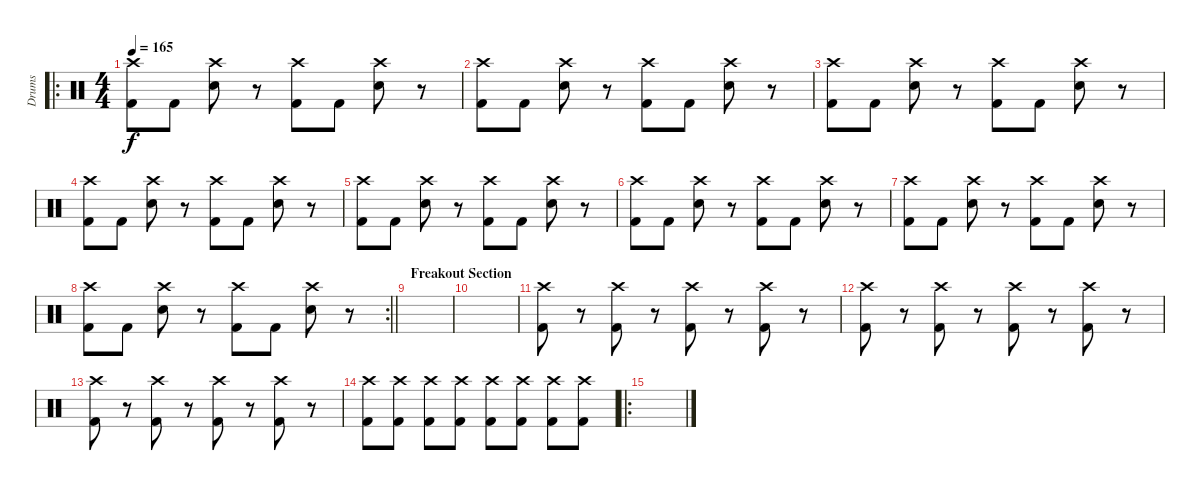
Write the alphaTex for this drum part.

\track ("Drums" "Drums") {instrument percussion}
\staff {score}
\articulation defaults
\ro
\ts (4 4)
\tempo 165
\clef neutral
\ks c
("Crash high (hit)" "Kick (hit) 2").8{dy f} "Kick (hit) 2".8 ("Crash high (hit)" "Electric Snare (hit)").8 r.8 ("Crash high (hit)" "Kick (hit) 2").8 "Kick (hit) 2".8 ("Crash high (hit)" "Electric Snare (hit)").8 r.8 |
("Crash high (hit)" "Kick (hit) 2").8 "Kick (hit) 2".8 ("Crash high (hit)" "Electric Snare (hit)").8 r.8 ("Crash high (hit)" "Kick (hit) 2").8 "Kick (hit) 2".8 ("Crash high (hit)" "Electric Snare (hit)").8 r.8 |
("Crash high (hit)" "Kick (hit) 2").8 "Kick (hit) 2".8 ("Crash high (hit)" "Electric Snare (hit)").8 r.8 ("Crash high (hit)" "Kick (hit) 2").8 "Kick (hit) 2".8 ("Crash high (hit)" "Electric Snare (hit)").8 r.8 |
("Crash high (hit)" "Kick (hit) 2").8 "Kick (hit) 2".8 ("Crash high (hit)" "Electric Snare (hit)").8 r.8 ("Crash high (hit)" "Kick (hit) 2").8 "Kick (hit) 2".8 ("Crash high (hit)" "Electric Snare (hit)").8 r.8 |
("Crash high (hit)" "Kick (hit) 2").8 "Kick (hit) 2".8 ("Crash high (hit)" "Electric Snare (hit)").8 r.8 ("Crash high (hit)" "Kick (hit) 2").8 "Kick (hit) 2".8 ("Crash high (hit)" "Electric Snare (hit)").8 r.8 |
("Crash high (hit)" "Kick (hit) 2").8 "Kick (hit) 2".8 ("Crash high (hit)" "Electric Snare (hit)").8 r.8 ("Crash high (hit)" "Kick (hit) 2").8 "Kick (hit) 2".8 ("Crash high (hit)" "Electric Snare (hit)").8 r.8 |
("Crash high (hit)" "Kick (hit) 2").8 "Kick (hit) 2".8 ("Crash high (hit)" "Electric Snare (hit)").8 r.8 ("Crash high (hit)" "Kick (hit) 2").8 "Kick (hit) 2".8 ("Crash high (hit)" "Electric Snare (hit)").8 r.8 |
\rc 2
\barLineRight lightlight
("Crash high (hit)" "Kick (hit) 2").8 "Kick (hit) 2".8 ("Crash high (hit)" "Electric Snare (hit)").8 r.8 ("Crash high (hit)" "Kick (hit) 2").8 "Kick (hit) 2".8 ("Crash high (hit)" "Electric Snare (hit)").8 r.8 |
\section ("" "Freakout Section")
|
|
("Crash high (hit)" "Kick (hit) 2").8 r.8 ("Crash high (hit)" "Kick (hit) 2").8 r.8 ("Crash high (hit)" "Kick (hit) 2").8 r.8 ("Crash high (hit)" "Kick (hit) 2").8 r.8 |
("Crash high (hit)" "Kick (hit) 2").8 r.8 ("Crash high (hit)" "Kick (hit) 2").8 r.8 ("Crash high (hit)" "Kick (hit) 2").8 r.8 ("Crash high (hit)" "Kick (hit) 2").8 r.8 |
("Crash high (hit)" "Kick (hit) 2").8 r.8 ("Crash high (hit)" "Kick (hit) 2").8 r.8 ("Crash high (hit)" "Kick (hit) 2").8 r.8 ("Crash high (hit)" "Kick (hit) 2").8 r.8 |
("Crash high (hit)" "Kick (hit) 2").8 ("Crash high (hit)" "Kick (hit) 2").8 ("Crash high (hit)" "Kick (hit) 2").8 ("Crash high (hit)" "Kick (hit) 2").8 ("Crash high (hit)" "Kick (hit) 2").8 ("Crash high (hit)" "Kick (hit) 2").8 ("Crash high (hit)" "Kick (hit) 2").8 ("Crash high (hit)" "Kick (hit) 2").8 |
\ro
